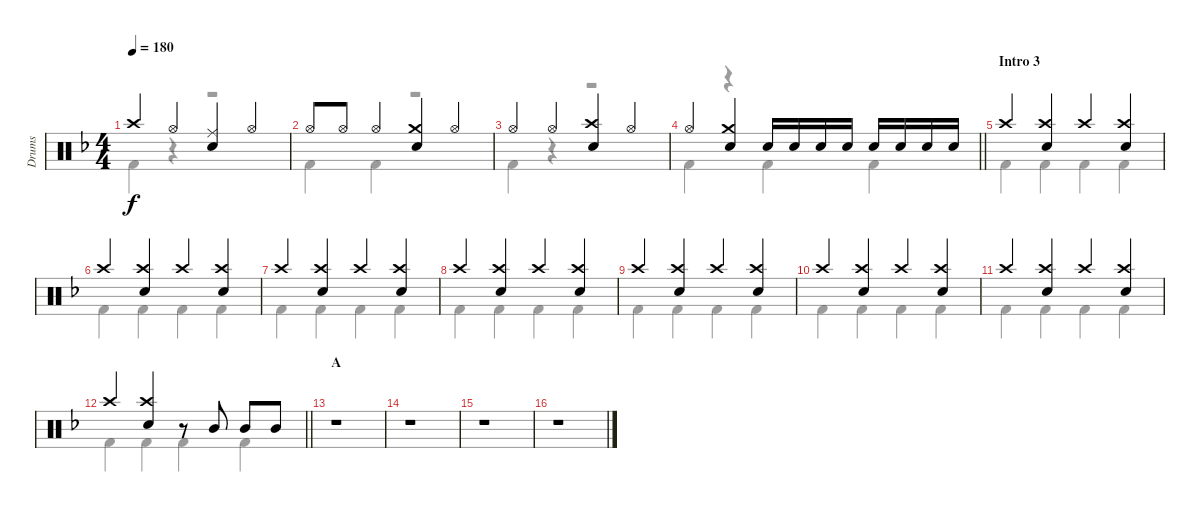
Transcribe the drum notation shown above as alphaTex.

\track ("Drums" "Drums") {instrument percussion}
\staff {score}
\articulation defaults
\voice
\ts (4 4)
\tempo 180
\clef neutral
\ks f "Crash high (hit)".4{dy f} "Hi-Hat (open)".4
("Ride (middle)" "Snare (hit) 2").4 "Hi-Hat (open)".4 |
"Hi-Hat (open)".8 "Hi-Hat (open)".8 "Hi-Hat (open)".4 ("Crash medium (hit)" "Snare (hit) 2").4 "Hi-Hat (open)".4 |
"Hi-Hat (open)".4 "Hi-Hat (open)".4 ("Crash high (hit)" "Snare (hit) 2").4 "Hi-Hat (open)".4 |
\barLineRight lightlight "Hi-Hat (open)".4
("Crash medium (hit)" "Snare (hit) 2").4 "Snare (hit) 2".16 "Snare (hit) 2".16 "Snare (hit) 2".16 "Snare (hit) 2".16 "Snare (hit) 2".16 "Snare (hit) 2".16 "Snare (hit) 2".16 "Snare (hit) 2".16 |
\section ("" "Intro 3")
"Crash high (hit)".4 ("Crash high (hit)" "Snare (hit) 2").4 "Crash high (hit)".4 ("Crash high (hit)" "Snare (hit) 2").4 |
"Crash high (hit)".4 ("Crash high (hit)" "Snare (hit) 2").4 "Crash high (hit)".4 ("Crash high (hit)" "Snare (hit) 2").4 |
"Crash high (hit)".4 ("Crash high (hit)" "Snare (hit) 2").4 "Crash high (hit)".4 ("Crash high (hit)" "Snare (hit) 2").4 |
"Crash high (hit)".4 ("Crash high (hit)" "Snare (hit) 2").4 "Crash high (hit)".4 ("Crash high (hit)" "Snare (hit) 2").4 |
"Crash high (hit)".4 ("Crash high (hit)" "Snare (hit) 2").4 "Crash high (hit)".4 ("Crash high (hit)" "Snare (hit) 2").4 |
"Crash high (hit)".4 ("Crash high (hit)" "Snare (hit) 2").4 "Crash high (hit)".4 ("Crash high (hit)" "Snare (hit) 2").4 |
"Crash high (hit)".4 ("Crash high (hit)" "Snare (hit) 2").4 "Crash high (hit)".4 ("Crash high (hit)" "Snare (hit) 2").4 |
\barLineRight lightlight "Crash high (hit)".4
("Crash high (hit)" "Snare (hit) 2").4 r.8 "Mid Tom (hit)".8 "Mid Tom (hit)".8 "Mid Tom (hit)".8 |
\section ("" "A")
r.1 |
r.1 |
r.1 |
r.1
\voice
\clef neutral
\ottava regular
\simile none
\ks f "Kick (hit) 2".4{dy f}
r.4 r.2 |
"Kick (hit) 2".4 "Kick (hit) 2".4 r.2 |
"Kick (hit) 2".4 r.4 r.2 |
\barLineRight lightlight "Kick (hit) 2".4
r.4 "Kick (hit) 2".4 "Kick (hit) 2".4 |
"Kick (hit) 2".4 "Kick (hit) 2".4 "Kick (hit) 2".4 "Kick (hit) 2".4 |
"Kick (hit) 2".4 "Kick (hit) 2".4 "Kick (hit) 2".4 "Kick (hit) 2".4 |
"Kick (hit) 2".4 "Kick (hit) 2".4 "Kick (hit) 2".4 "Kick (hit) 2".4 |
"Kick (hit) 2".4 "Kick (hit) 2".4 "Kick (hit) 2".4 "Kick (hit) 2".4 |
"Kick (hit) 2".4 "Kick (hit) 2".4 "Kick (hit) 2".4 "Kick (hit) 2".4 |
"Kick (hit) 2".4 "Kick (hit) 2".4 "Kick (hit) 2".4 "Kick (hit) 2".4 |
"Kick (hit) 2".4 "Kick (hit) 2".4 "Kick (hit) 2".4 "Kick (hit) 2".4 |
\barLineRight lightlight "Kick (hit) 2".4 "Kick (hit) 2".4 "Kick (hit) 2".4 "Kick (hit) 2".4
|
r.1 |
r.1 |
r.1 |
r.1
